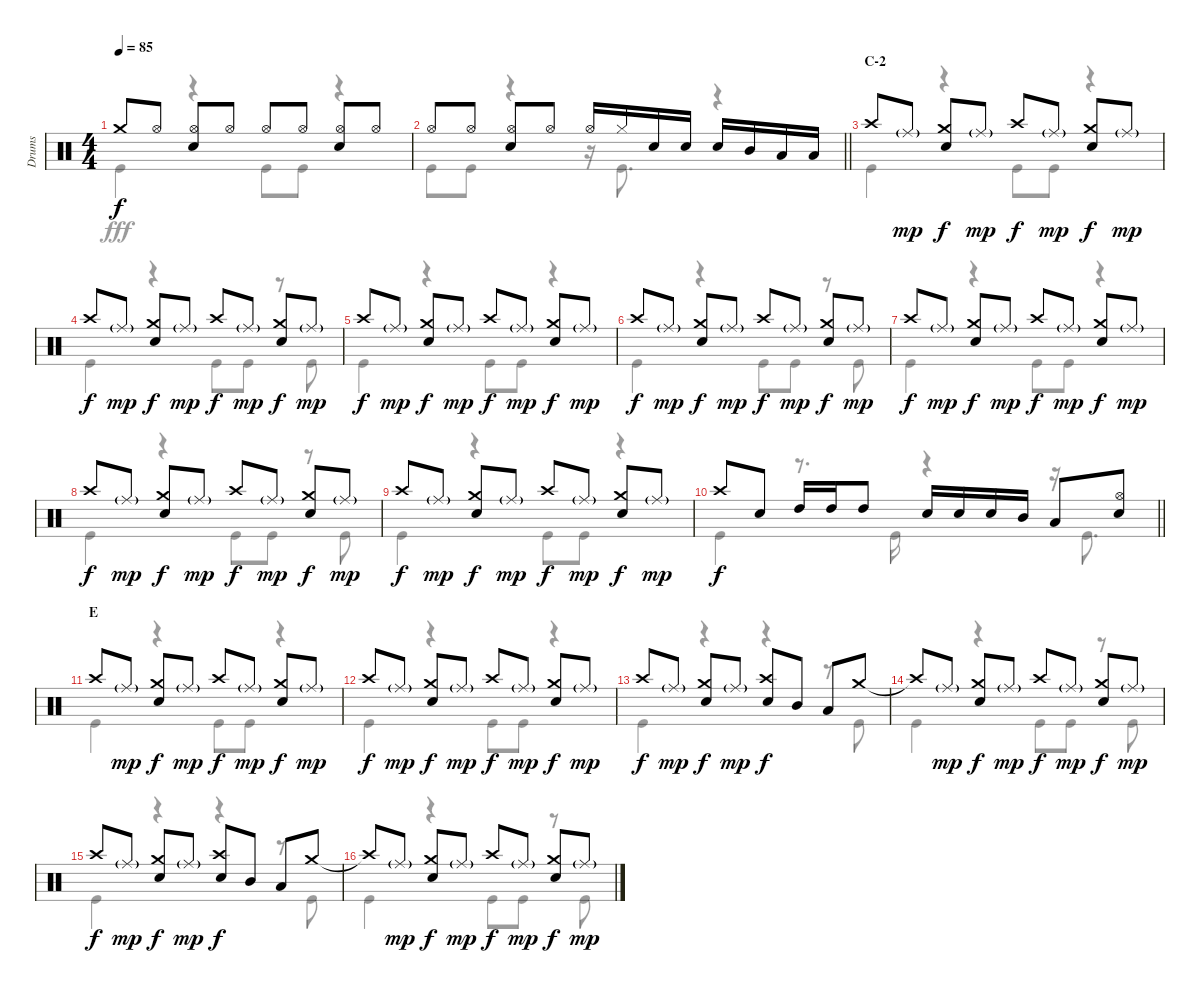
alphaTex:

\track ("Drums" "Drums") {instrument percussion}
\staff {score}
\articulation defaults
\voice
\ts (4 4)
\tempo 85
\clef neutral
\ks c "Crash medium (hit)".8{dy f} "Hi-Hat (open)".8
("Hi-Hat (open)" "Snare (hit) 2").8 "Hi-Hat (open)".8 "Hi-Hat (open)".8 "Hi-Hat (open)".8 ("Hi-Hat (open)" "Snare (hit) 2").8 "Hi-Hat (open)".8 |
\barLineRight lightlight "Hi-Hat (open)".8 "Hi-Hat (open)".8
("Hi-Hat (open)" "Snare (hit) 2").8 "Hi-Hat (open)".8 "Hi-Hat (open)".16 "Hi-Hat (closed)".16 "Snare (hit) 2".16 "Snare (hit) 2".16 "Snare (hit) 2".16 "Mid Tom (hit)".16 "Low Tom (hit)".16 "Low Tom (hit)".16 |
\section ("" "C-2")
"Crash high (hit)".8 "Ride (middle)"{g}.8{dy mp} ("Crash medium (hit)" "Snare (hit) 2").8{dy f} "Ride (middle)"{g}.8{dy mp} "Crash high (hit)".8{dy f} "Ride (middle)"{g}.8{dy mp} ("Crash medium (hit)" "Snare (hit) 2").8{dy f} "Ride (middle)"{g}.8{dy mp} |
"Crash high (hit)".8{dy f} "Ride (middle)"{g}.8{dy mp} ("Crash medium (hit)" "Snare (hit) 2").8{dy f} "Ride (middle)"{g}.8{dy mp} "Crash high (hit)".8{dy f} "Ride (middle)"{g}.8{dy mp} ("Crash medium (hit)" "Snare (hit) 2").8{dy f} "Ride (middle)"{g}.8{dy mp} |
"Crash high (hit)".8{dy f} "Ride (middle)"{g}.8{dy mp} ("Crash medium (hit)" "Snare (hit) 2").8{dy f} "Ride (middle)"{g}.8{dy mp} "Crash high (hit)".8{dy f} "Ride (middle)"{g}.8{dy mp} ("Crash medium (hit)" "Snare (hit) 2").8{dy f} "Ride (middle)"{g}.8{dy mp} |
"Crash high (hit)".8{dy f} "Ride (middle)"{g}.8{dy mp} ("Crash medium (hit)" "Snare (hit) 2").8{dy f} "Ride (middle)"{g}.8{dy mp} "Crash high (hit)".8{dy f} "Ride (middle)"{g}.8{dy mp} ("Crash medium (hit)" "Snare (hit) 2").8{dy f} "Ride (middle)"{g}.8{dy mp} |
"Crash high (hit)".8{dy f} "Ride (middle)"{g}.8{dy mp} ("Crash medium (hit)" "Snare (hit) 2").8{dy f} "Ride (middle)"{g}.8{dy mp} "Crash high (hit)".8{dy f} "Ride (middle)"{g}.8{dy mp} ("Crash medium (hit)" "Snare (hit) 2").8{dy f} "Ride (middle)"{g}.8{dy mp} |
"Crash high (hit)".8{dy f} "Ride (middle)"{g}.8{dy mp} ("Crash medium (hit)" "Snare (hit) 2").8{dy f} "Ride (middle)"{g}.8{dy mp} "Crash high (hit)".8{dy f} "Ride (middle)"{g}.8{dy mp} ("Crash medium (hit)" "Snare (hit) 2").8{dy f} "Ride (middle)"{g}.8{dy mp} |
"Crash high (hit)".8{dy f} "Ride (middle)"{g}.8{dy mp} ("Crash medium (hit)" "Snare (hit) 2").8{dy f} "Ride (middle)"{g}.8{dy mp} "Crash high (hit)".8{dy f} "Ride (middle)"{g}.8{dy mp} ("Crash medium (hit)" "Snare (hit) 2").8{dy f} "Ride (middle)"{g}.8{dy mp} |
\barLineRight lightlight "Crash high (hit)".8{dy f} "Snare (hit) 2".8 "High Tom (hit)".16 "High Tom (hit)".16 "High Tom (hit)".8 "Snare (hit) 2".16 "Snare (hit) 2".16 "Snare (hit) 2".16 "Mid Tom (hit)".16 "Low Tom (hit)".8
("Hi-Hat (open)" "Snare (hit) 2").8 |
\section ("" "E")
"Crash high (hit)".8 "Ride (middle)"{g}.8{dy mp} ("Crash medium (hit)" "Snare (hit) 2").8{dy f} "Ride (middle)"{g}.8{dy mp} "Crash high (hit)".8{dy f} "Ride (middle)"{g}.8{dy mp} ("Crash medium (hit)" "Snare (hit) 2").8{dy f} "Ride (middle)"{g}.8{dy mp} |
"Crash high (hit)".8{dy f} "Ride (middle)"{g}.8{dy mp} ("Crash medium (hit)" "Snare (hit) 2").8{dy f} "Ride (middle)"{g}.8{dy mp} "Crash high (hit)".8{dy f} "Ride (middle)"{g}.8{dy mp} ("Crash medium (hit)" "Snare (hit) 2").8{dy f} "Ride (middle)"{g}.8{dy mp} |
"Crash high (hit)".8{dy f} "Ride (middle)"{g}.8{dy mp} ("Crash medium (hit)" "Snare (hit) 2").8{dy f} "Ride (middle)"{g}.8{dy mp} ("Crash high (hit)" "Snare (hit) 2").8{dy f} "Mid Tom (hit)".8 "Low Tom (hit)".8 "Crash medium (hit)".8 |
"Crash high (hit)"{t}.8 "Ride (middle)"{g}.8{dy mp} ("Crash medium (hit)" "Snare (hit) 2").8{dy f} "Ride (middle)"{g}.8{dy mp} "Crash high (hit)".8{dy f} "Ride (middle)"{g}.8{dy mp} ("Crash medium (hit)" "Snare (hit) 2").8{dy f} "Ride (middle)"{g}.8{dy mp} |
"Crash high (hit)".8{dy f} "Ride (middle)"{g}.8{dy mp} ("Crash medium (hit)" "Snare (hit) 2").8{dy f} "Ride (middle)"{g}.8{dy mp} ("Crash high (hit)" "Snare (hit) 2").8{dy f} "Mid Tom (hit)".8 "Low Tom (hit)".8 "Crash medium (hit)".8 |
"Crash high (hit)"{t}.8 "Ride (middle)"{g}.8{dy mp} ("Crash medium (hit)" "Snare (hit) 2").8{dy f} "Ride (middle)"{g}.8{dy mp} "Crash high (hit)".8{dy f} "Ride (middle)"{g}.8{dy mp} ("Crash medium (hit)" "Snare (hit) 2").8{dy f} "Ride (middle)"{g}.8{dy mp}
\voice
\clef neutral
\ottava regular
\simile none
\ks c "Kick (hit)".4{dy fff}
r.4 "Kick (hit)".8 "Kick (hit)".8 r.4 |
\barLineRight lightlight "Kick (hit)".8 "Kick (hit)".8
r.4 r.16 "Kick (hit)".8{d} r.4 |
"Kick (hit)".4 r.4 "Kick (hit)".8 "Kick (hit)".8 r.4 |
"Kick (hit)".4 r.4 "Kick (hit)".8 "Kick (hit)".8 r.8 "Kick (hit)".8 |
"Kick (hit)".4 r.4 "Kick (hit)".8 "Kick (hit)".8 r.4 |
"Kick (hit)".4 r.4 "Kick (hit)".8 "Kick (hit)".8 r.8 "Kick (hit)".8 |
"Kick (hit)".4 r.4 "Kick (hit)".8 "Kick (hit)".8 r.4 |
"Kick (hit)".4 r.4 "Kick (hit)".8 "Kick (hit)".8 r.8 "Kick (hit)".8 |
"Kick (hit)".4 r.4 "Kick (hit)".8 "Kick (hit)".8 r.4 |
\barLineRight lightlight "Kick (hit)".4
r.8{d} "Kick (hit)".16 r.4 r.16 "Kick (hit)".8{d} |
"Kick (hit)".4 r.4 "Kick (hit)".8 "Kick (hit)".8 r.4 |
"Kick (hit)".4 r.4 "Kick (hit)".8 "Kick (hit)".8 r.4 |
"Kick (hit)".4 r.4 r.4 r.8 "Kick (hit)".8 |
"Kick (hit)".4 r.4 "Kick (hit)".8 "Kick (hit)".8 r.8 "Kick (hit)".8 |
"Kick (hit)".4 r.4 r.4 r.8 "Kick (hit)".8 |
"Kick (hit)".4 r.4 "Kick (hit)".8 "Kick (hit)".8 r.8 "Kick (hit)".8
